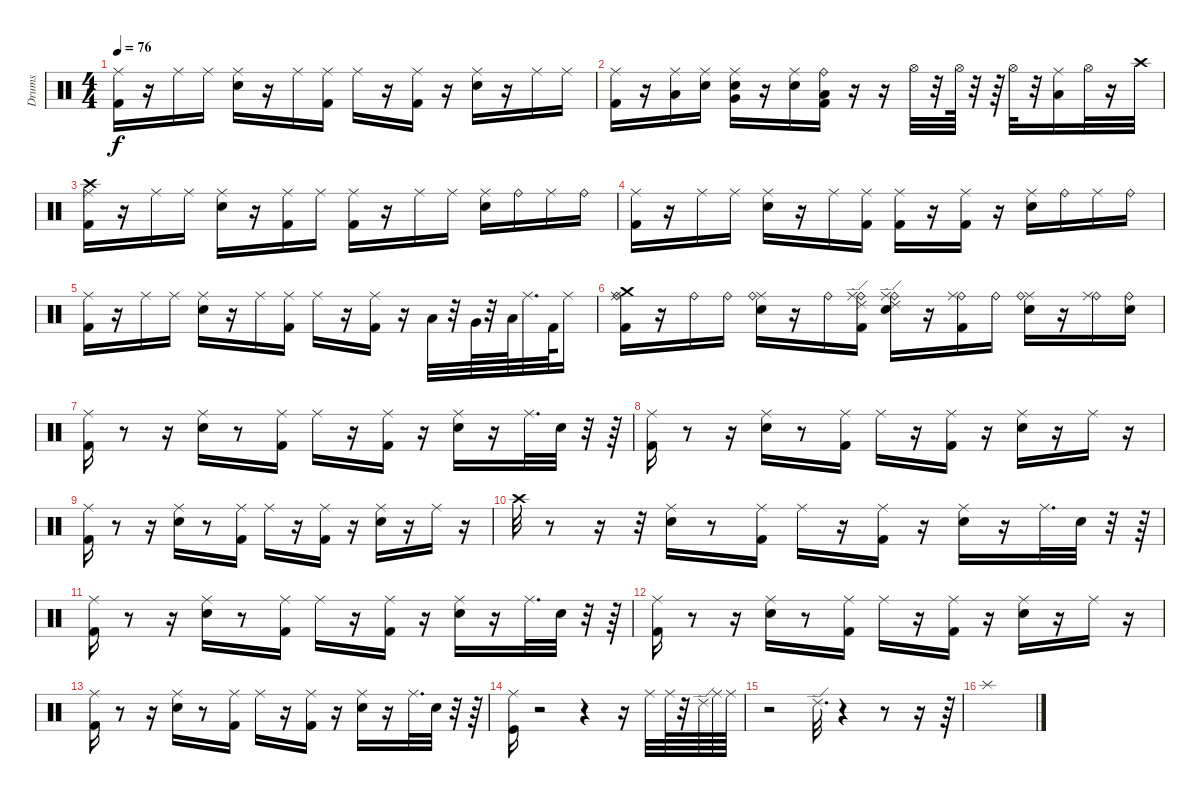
\track ("Drums" "Drums") {instrument percussion}
\staff {score}
\articulation defaults
\ts (4 4)
\tempo 76
\clef neutral
\ks c
("Kick (hit) 2" "Ride (middle)").16{dy f} r.16 "Ride (middle)".16 "Ride (middle)".16 ("Electric Snare (hit)" "Ride (middle)").16 r.16 "Ride (middle)".16 ("Kick (hit) 2" "Ride (middle)").16 "Ride (middle)".16 r.16 ("Ride (middle)" "Kick (hit) 2").16 r.16 ("Ride (middle)" "Electric Snare (hit)").16 r.16 "Ride (middle)".16 "Ride (middle)".16 |
("Ride (middle)" "Kick (hit) 2").16 r.16 ("Ride (middle)" "Low Tom (hit)").16 ("Snare (hit) 2" "Ride (middle)").16 ("Ride (middle)" "Very Low Tom (hit)" "Electric Snare (hit)").16 r.16 ("Ride (middle)" "Snare (hit) 2").16 ("Low Floor Tom (hit)" "Kick (hit) 2" "Ride (bell)").16 r.16 r.16 "Hi-Hat (open)".32 r.32 "Hi-Hat (open)".64 r.32 r.64 "Hi-Hat (open)".32 r.32 ("Ride (middle)" "Low Tom (hit)").16 "Hi-Hat (open)".32 r.16 "Crash high (hit)".32 |
("Kick (hit) 2" "Crash high (hit)" "Ride (middle)").16 r.16 "Ride (middle)".16 "Ride (middle)".16 ("Electric Snare (hit)" "Ride (middle)").16 r.16 ("Kick (hit) 2" "Ride (middle)").16 "Ride (middle)".16 ("Ride (middle)" "Kick (hit) 2").16 r.16 "Ride (middle)".16 "Ride (middle)".16 ("Ride (middle)" "Electric Snare (hit)").16 "Ride (bell)".16 "Ride (middle)".16 "Ride (bell)".16 |
("Ride (middle)" "Kick (hit) 2").16 r.16 "Ride (middle)".16 "Ride (middle)".16 ("Ride (middle)" "Electric Snare (hit)").16 r.16 "Ride (middle)".16 ("Ride (middle)" "Kick (hit) 2").16 ("Ride (middle)" "Kick (hit) 2").16 r.16 ("Ride (middle)" "Kick (hit) 2").16 r.16 ("Ride (middle)" "Electric Snare (hit)").16 "Ride (bell)".16 "Ride (middle)".16 "Ride (bell)".16 |
("Ride (middle)" "Kick (hit) 2").16 r.16 "Ride (middle)".16 "Ride (middle)".16 ("Electric Snare (hit)" "Ride (middle)").16 r.16 "Ride (middle)".16 ("Kick (hit) 2" "Ride (middle)").16 "Ride (middle)".16 r.16 ("Ride (middle)" "Kick (hit) 2").16 r.16 "Low Tom (hit)".32 r.32 "Very Low Tom (hit)".64 r.32 "Low Floor Tom (hit)".64 "Ride (middle)".32{d} "Kick (hit) 2".64 "Ride (middle)".16 |
("Ride (bell)" "Ride (middle)" "Kick (hit) 2" "Crash medium (hit)").16 r.16 "Ride (bell)".16 "Ride (bell)".16 ("Electric Snare (hit)" "Ride (middle)" "Ride (bell)").16 r.16 "Ride (bell)".16 ("Kick (hit) 2" "Ride (bell)" "Ride (edge) 2" "Ride (middle)").16 ("Electric Snare (hit)" "Ride (bell)" "Ride (middle)" "Ride (edge) 2").16 r.16 ("Ride (bell)" "Kick (hit) 2" "Ride (middle)").16 "Ride (bell)".16 ("Electric Snare (hit)" "Ride (middle)" "Ride (bell)").16 r.16 ("Ride (bell)" "Ride (middle)").16 ("Ride (bell)" "Electric Snare (hit)").16 |
("Kick (hit) 2" "Ride (middle)").16 r.8 r.16 ("Ride (middle)" "Electric Snare (hit)").16 r.8 ("Kick (hit) 2" "Ride (middle)").16 "Ride (middle)".16 r.16 ("Kick (hit) 2" "Ride (middle)").16 r.16 ("Ride (middle)" "Electric Snare (hit)").16 r.16 "Ride (middle)".32{d} "Electric Snare (hit)".32 r.32 r.64 |
("Ride (middle)" "Kick (hit) 2").16 r.8 r.16 ("Electric Snare (hit)" "Ride (middle)").16 r.8 ("Ride (middle)" "Kick (hit) 2").16 "Ride (middle)".16 r.16 ("Ride (middle)" "Kick (hit) 2").16 r.16 ("Electric Snare (hit)" "Ride (middle)").16 r.16 "Ride (middle)".16 r.16 |
("Kick (hit) 2" "Ride (middle)").16 r.8 r.16 ("Electric Snare (hit)" "Ride (middle)").16 r.8 ("Ride (middle)" "Kick (hit) 2").16 "Ride (middle)".16 r.16 ("Ride (middle)" "Kick (hit) 2").16 r.16 ("Ride (middle)" "Electric Snare (hit)").16 r.16 "Ride (middle)".16 r.16 |
"Crash high (hit)".32 r.8 r.16 r.32 ("Electric Snare (hit)" "Ride (middle)").16 r.8 ("Kick (hit) 2" "Ride (middle)").16 "Ride (middle)".16 r.16 ("Kick (hit) 2" "Ride (middle)").16 r.16 ("Ride (middle)" "Electric Snare (hit)").16 r.16 "Ride (middle)".32{d} "Electric Snare (hit)".32 r.32 r.64 |
("Ride (middle)" "Kick (hit) 2").16 r.8 r.16 ("Ride (middle)" "Electric Snare (hit)").16 r.8 ("Kick (hit) 2" "Ride (middle)").16 "Ride (middle)".16 r.16 ("Kick (hit) 2" "Ride (middle)").16 r.16 ("Electric Snare (hit)" "Ride (middle)").16 r.16 "Ride (middle)".32{d} "Electric Snare (hit)".32 r.32 r.64 |
("Kick (hit) 2" "Ride (middle)").16 r.8 r.16 ("Ride (middle)" "Electric Snare (hit)").16 r.8 ("Ride (middle)" "Kick (hit) 2").16 "Ride (middle)".16 r.16 ("Ride (middle)" "Kick (hit) 2").16 r.16 ("Ride (middle)" "Electric Snare (hit)").16 r.16 "Ride (middle)".16 r.16 |
("Kick (hit) 2" "Ride (middle)").16 r.8 r.16 ("Ride (middle)" "Electric Snare (hit)").16 r.8 ("Kick (hit) 2" "Ride (middle)").16 "Ride (middle)".16 r.16 ("Ride (middle)" "Kick (hit) 2").16 r.16 ("Electric Snare (hit)" "Ride (middle)").16 r.16 "Ride (middle)".32{d} "Electric Snare (hit)".32 r.32 r.64 |
("Ride (middle)" "Kick (hit)").16 r.2 r.4 r.16 "Ride (middle)".32 "Ride (middle)".64 r.32 "Ride (edge) 2".64 "Ride (middle)".64 "Ride (middle)".64 |
r.2 "Ride (edge) 2".32{d} r.4 r.8 r.16 r.64 |
"Splash (hit)".1
